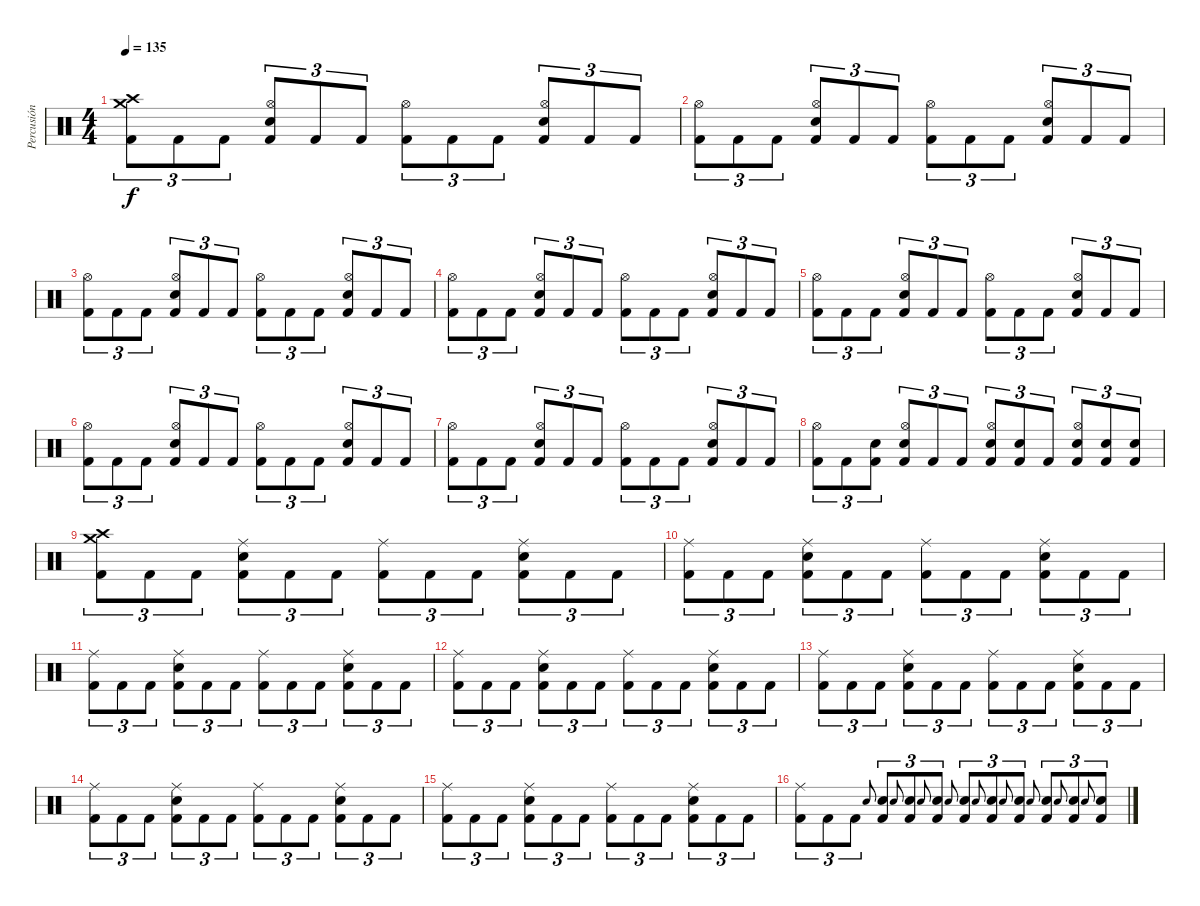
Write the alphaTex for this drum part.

\track ("Percusión" "Percusión") {instrument percussion}
\staff {score}
\articulation defaults
\ts (4 4)
\tempo 135
\clef neutral
\ks c
("Crash medium (hit)" "Crash high (hit)" "Kick (hit) 2").8{tu (3 2) dy f} "Kick (hit) 2".8{tu (3 2)} "Kick (hit) 2".8{tu (3 2)} ("Hi-Hat (open)" "Snare (hit) 2" "Kick (hit) 2").8{tu (3 2)} "Kick (hit) 2".8{tu (3 2)} "Kick (hit) 2".8{tu (3 2)} ("Hi-Hat (open)" "Kick (hit) 2").8{tu (3 2)} "Kick (hit) 2".8{tu (3 2)} "Kick (hit) 2".8{tu (3 2)} ("Hi-Hat (open)" "Snare (hit) 2" "Kick (hit) 2").8{tu (3 2)} "Kick (hit) 2".8{tu (3 2)} "Kick (hit) 2".8{tu (3 2)} |
("Hi-Hat (open)" "Kick (hit) 2").8{tu (3 2)} "Kick (hit) 2".8{tu (3 2)} "Kick (hit) 2".8{tu (3 2)} ("Hi-Hat (open)" "Snare (hit) 2" "Kick (hit) 2").8{tu (3 2)} "Kick (hit) 2".8{tu (3 2)} "Kick (hit) 2".8{tu (3 2)} ("Hi-Hat (open)" "Kick (hit) 2").8{tu (3 2)} "Kick (hit) 2".8{tu (3 2)} "Kick (hit) 2".8{tu (3 2)} ("Hi-Hat (open)" "Snare (hit) 2" "Kick (hit) 2").8{tu (3 2)} "Kick (hit) 2".8{tu (3 2)} "Kick (hit) 2".8{tu (3 2)} |
("Hi-Hat (open)" "Kick (hit) 2").8{tu (3 2)} "Kick (hit) 2".8{tu (3 2)} "Kick (hit) 2".8{tu (3 2)} ("Hi-Hat (open)" "Snare (hit) 2" "Kick (hit) 2").8{tu (3 2)} "Kick (hit) 2".8{tu (3 2)} "Kick (hit) 2".8{tu (3 2)} ("Hi-Hat (open)" "Kick (hit) 2").8{tu (3 2)} "Kick (hit) 2".8{tu (3 2)} "Kick (hit) 2".8{tu (3 2)} ("Hi-Hat (open)" "Snare (hit) 2" "Kick (hit) 2").8{tu (3 2)} "Kick (hit) 2".8{tu (3 2)} "Kick (hit) 2".8{tu (3 2)} |
("Hi-Hat (open)" "Kick (hit) 2").8{tu (3 2)} "Kick (hit) 2".8{tu (3 2)} "Kick (hit) 2".8{tu (3 2)} ("Hi-Hat (open)" "Snare (hit) 2" "Kick (hit) 2").8{tu (3 2)} "Kick (hit) 2".8{tu (3 2)} "Kick (hit) 2".8{tu (3 2)} ("Hi-Hat (open)" "Kick (hit) 2").8{tu (3 2)} "Kick (hit) 2".8{tu (3 2)} "Kick (hit) 2".8{tu (3 2)} ("Hi-Hat (open)" "Snare (hit) 2" "Kick (hit) 2").8{tu (3 2)} "Kick (hit) 2".8{tu (3 2)} "Kick (hit) 2".8{tu (3 2)} |
("Hi-Hat (open)" "Kick (hit) 2").8{tu (3 2)} "Kick (hit) 2".8{tu (3 2)} "Kick (hit) 2".8{tu (3 2)} ("Hi-Hat (open)" "Snare (hit) 2" "Kick (hit) 2").8{tu (3 2)} "Kick (hit) 2".8{tu (3 2)} "Kick (hit) 2".8{tu (3 2)} ("Hi-Hat (open)" "Kick (hit) 2").8{tu (3 2)} "Kick (hit) 2".8{tu (3 2)} "Kick (hit) 2".8{tu (3 2)} ("Hi-Hat (open)" "Snare (hit) 2" "Kick (hit) 2").8{tu (3 2)} "Kick (hit) 2".8{tu (3 2)} "Kick (hit) 2".8{tu (3 2)} |
("Hi-Hat (open)" "Kick (hit) 2").8{tu (3 2)} "Kick (hit) 2".8{tu (3 2)} "Kick (hit) 2".8{tu (3 2)} ("Hi-Hat (open)" "Snare (hit) 2" "Kick (hit) 2").8{tu (3 2)} "Kick (hit) 2".8{tu (3 2)} "Kick (hit) 2".8{tu (3 2)} ("Hi-Hat (open)" "Kick (hit) 2").8{tu (3 2)} "Kick (hit) 2".8{tu (3 2)} "Kick (hit) 2".8{tu (3 2)} ("Hi-Hat (open)" "Snare (hit) 2" "Kick (hit) 2").8{tu (3 2)} "Kick (hit) 2".8{tu (3 2)} "Kick (hit) 2".8{tu (3 2)} |
("Hi-Hat (open)" "Kick (hit) 2").8{tu (3 2)} "Kick (hit) 2".8{tu (3 2)} "Kick (hit) 2".8{tu (3 2)} ("Hi-Hat (open)" "Snare (hit) 2" "Kick (hit) 2").8{tu (3 2)} "Kick (hit) 2".8{tu (3 2)} "Kick (hit) 2".8{tu (3 2)} ("Hi-Hat (open)" "Kick (hit) 2").8{tu (3 2)} "Kick (hit) 2".8{tu (3 2)} "Kick (hit) 2".8{tu (3 2)} ("Hi-Hat (open)" "Snare (hit) 2" "Kick (hit) 2").8{tu (3 2)} "Kick (hit) 2".8{tu (3 2)} "Kick (hit) 2".8{tu (3 2)} |
("Hi-Hat (open)" "Kick (hit) 2").8{tu (3 2)} "Kick (hit) 2".8{tu (3 2)} ("Snare (hit) 2" "Kick (hit) 2").8{tu (3 2)} ("Hi-Hat (open)" "Snare (hit) 2" "Kick (hit) 2").8{tu (3 2)} "Kick (hit) 2".8{tu (3 2)} "Kick (hit) 2".8{tu (3 2)} ("Hi-Hat (open)" "Snare (hit) 2" "Kick (hit) 2").8{tu (3 2)} ("Snare (hit) 2" "Kick (hit) 2").8{tu (3 2)} "Kick (hit) 2".8{tu (3 2)} ("Hi-Hat (open)" "Snare (hit) 2" "Kick (hit) 2").8{tu (3 2)} ("Snare (hit) 2" "Kick (hit) 2").8{tu (3 2)} ("Snare (hit) 2" "Kick (hit) 2").8{tu (3 2)} |
("Crash high (hit)" "Crash medium (hit)" "Kick (hit) 2").8{tu (3 2)} "Kick (hit) 2".8{tu (3 2)} "Kick (hit) 2".8{tu (3 2)} ("Ride (middle)" "Snare (hit) 2" "Kick (hit) 2").8{tu (3 2)} "Kick (hit) 2".8{tu (3 2)} "Kick (hit) 2".8{tu (3 2)} ("Ride (middle)" "Kick (hit) 2").8{tu (3 2)} "Kick (hit) 2".8{tu (3 2)} "Kick (hit) 2".8{tu (3 2)} ("Ride (middle)" "Snare (hit) 2" "Kick (hit) 2").8{tu (3 2)} "Kick (hit) 2".8{tu (3 2)} "Kick (hit) 2".8{tu (3 2)} |
("Ride (middle)" "Kick (hit) 2").8{tu (3 2)} "Kick (hit) 2".8{tu (3 2)} "Kick (hit) 2".8{tu (3 2)} ("Ride (middle)" "Snare (hit) 2" "Kick (hit) 2").8{tu (3 2)} "Kick (hit) 2".8{tu (3 2)} "Kick (hit) 2".8{tu (3 2)} ("Ride (middle)" "Kick (hit) 2").8{tu (3 2)} "Kick (hit) 2".8{tu (3 2)} "Kick (hit) 2".8{tu (3 2)} ("Ride (middle)" "Snare (hit) 2" "Kick (hit) 2").8{tu (3 2)} "Kick (hit) 2".8{tu (3 2)} "Kick (hit) 2".8{tu (3 2)} |
("Ride (middle)" "Kick (hit) 2").8{tu (3 2)} "Kick (hit) 2".8{tu (3 2)} "Kick (hit) 2".8{tu (3 2)} ("Ride (middle)" "Snare (hit) 2" "Kick (hit) 2").8{tu (3 2)} "Kick (hit) 2".8{tu (3 2)} "Kick (hit) 2".8{tu (3 2)} ("Ride (middle)" "Kick (hit) 2").8{tu (3 2)} "Kick (hit) 2".8{tu (3 2)} "Kick (hit) 2".8{tu (3 2)} ("Ride (middle)" "Snare (hit) 2" "Kick (hit) 2").8{tu (3 2)} "Kick (hit) 2".8{tu (3 2)} "Kick (hit) 2".8{tu (3 2)} |
("Ride (middle)" "Kick (hit) 2").8{tu (3 2)} "Kick (hit) 2".8{tu (3 2)} "Kick (hit) 2".8{tu (3 2)} ("Ride (middle)" "Snare (hit) 2" "Kick (hit) 2").8{tu (3 2)} "Kick (hit) 2".8{tu (3 2)} "Kick (hit) 2".8{tu (3 2)} ("Ride (middle)" "Kick (hit) 2").8{tu (3 2)} "Kick (hit) 2".8{tu (3 2)} "Kick (hit) 2".8{tu (3 2)} ("Ride (middle)" "Snare (hit) 2" "Kick (hit) 2").8{tu (3 2)} "Kick (hit) 2".8{tu (3 2)} "Kick (hit) 2".8{tu (3 2)} |
("Ride (middle)" "Kick (hit) 2").8{tu (3 2)} "Kick (hit) 2".8{tu (3 2)} "Kick (hit) 2".8{tu (3 2)} ("Ride (middle)" "Snare (hit) 2" "Kick (hit) 2").8{tu (3 2)} "Kick (hit) 2".8{tu (3 2)} "Kick (hit) 2".8{tu (3 2)} ("Ride (middle)" "Kick (hit) 2").8{tu (3 2)} "Kick (hit) 2".8{tu (3 2)} "Kick (hit) 2".8{tu (3 2)} ("Ride (middle)" "Snare (hit) 2" "Kick (hit) 2").8{tu (3 2)} "Kick (hit) 2".8{tu (3 2)} "Kick (hit) 2".8{tu (3 2)} |
("Ride (middle)" "Kick (hit) 2").8{tu (3 2)} "Kick (hit) 2".8{tu (3 2)} "Kick (hit) 2".8{tu (3 2)} ("Ride (middle)" "Snare (hit) 2" "Kick (hit) 2").8{tu (3 2)} "Kick (hit) 2".8{tu (3 2)} "Kick (hit) 2".8{tu (3 2)} ("Ride (middle)" "Kick (hit) 2").8{tu (3 2)} "Kick (hit) 2".8{tu (3 2)} "Kick (hit) 2".8{tu (3 2)} ("Ride (middle)" "Snare (hit) 2" "Kick (hit) 2").8{tu (3 2)} "Kick (hit) 2".8{tu (3 2)} "Kick (hit) 2".8{tu (3 2)} |
("Ride (middle)" "Kick (hit) 2").8{tu (3 2)} "Kick (hit) 2".8{tu (3 2)} "Kick (hit) 2".8{tu (3 2)} ("Ride (middle)" "Snare (hit) 2" "Kick (hit) 2").8{tu (3 2)} "Kick (hit) 2".8{tu (3 2)} "Kick (hit) 2".8{tu (3 2)} ("Ride (middle)" "Kick (hit) 2").8{tu (3 2)} "Kick (hit) 2".8{tu (3 2)} "Kick (hit) 2".8{tu (3 2)} ("Ride (middle)" "Snare (hit) 2" "Kick (hit) 2").8{tu (3 2)} "Kick (hit) 2".8{tu (3 2)} "Kick (hit) 2".8{tu (3 2)} |
("Ride (middle)" "Kick (hit) 2").8{tu (3 2)} "Kick (hit) 2".8{tu (3 2)} "Kick (hit) 2".8{tu (3 2)} "Snare (hit) 2".8{gr onbeat} ("Snare (hit) 2" "Kick (hit) 2").8{tu (3 2)} "Snare (hit) 2".8{gr onbeat} ("Snare (hit) 2" "Kick (hit) 2").8{tu (3 2)} "Snare (hit) 2".8{gr onbeat} ("Snare (hit) 2" "Kick (hit) 2").8{tu (3 2)} "Snare (hit) 2".8{gr onbeat} ("Snare (hit) 2" "Kick (hit) 2").8{tu (3 2)} "Snare (hit) 2".8{gr onbeat} ("Snare (hit) 2" "Kick (hit) 2").8{tu (3 2)} "Snare (hit) 2".8{gr onbeat} ("Snare (hit) 2" "Kick (hit) 2").8{tu (3 2)} "Snare (hit) 2".8{gr onbeat} ("Snare (hit) 2" "Kick (hit) 2").8{tu (3 2)} "Snare (hit) 2".8{gr onbeat} ("Snare (hit) 2" "Kick (hit) 2").8{tu (3 2)} "Snare (hit) 2".8{gr onbeat} ("Snare (hit) 2" "Kick (hit) 2").8{tu (3 2)}
